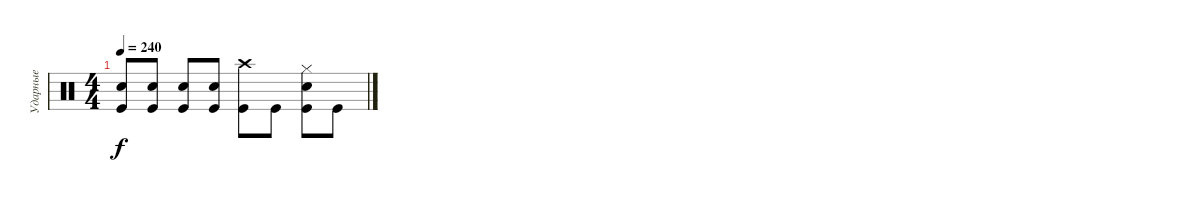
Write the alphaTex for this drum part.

\track ("Ударные" "Ударные") {instrument percussion}
\staff {score}
\articulation defaults
\ts (4 4)
\tempo 240
\clef neutral
\ks c
("Electric Snare (hit)" "Kick (hit)").8{dy f} ("Electric Snare (hit)" "Kick (hit)").8 ("Electric Snare (hit)" "Kick (hit)").8 ("Electric Snare (hit)" "Kick (hit)").8 ("Crash high (hit)" "Kick (hit)").8 "Kick (hit)".8 ("Hi-Hat (closed)" "Electric Snare (hit)" "Kick (hit)").8 "Kick (hit)".8
